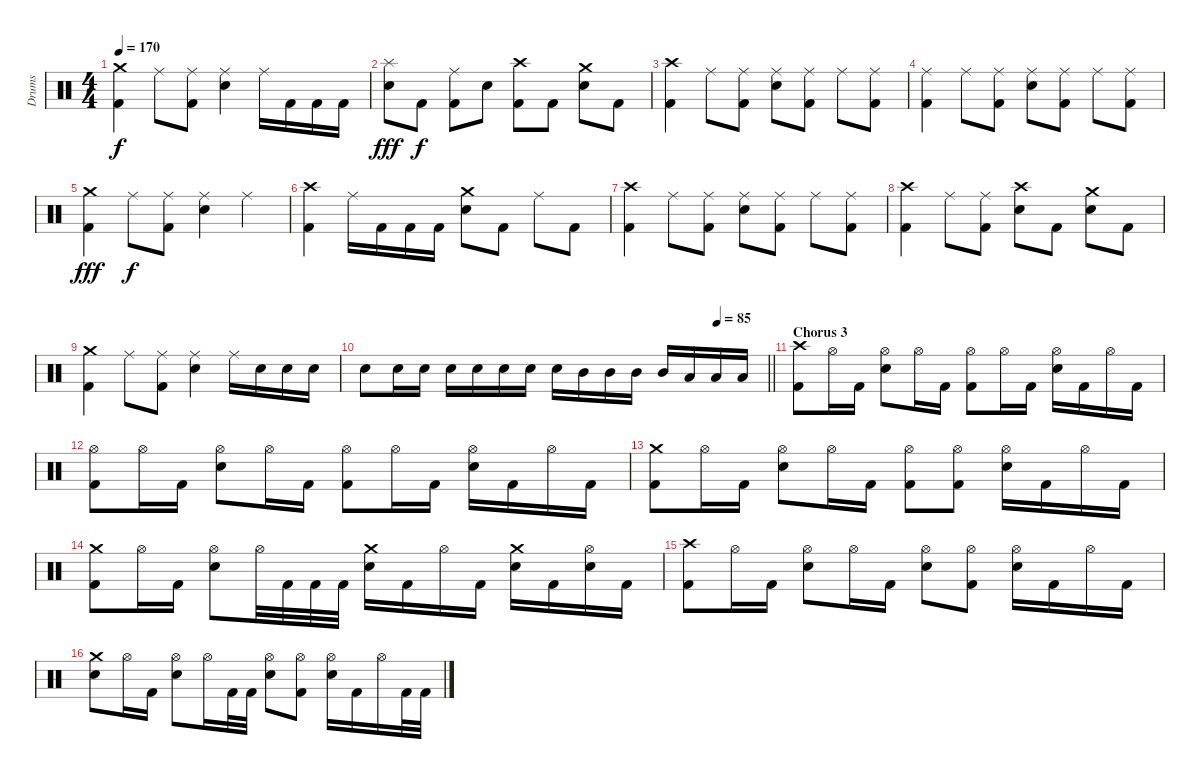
\track ("Drums" "Drums") {instrument percussion}
\staff {score}
\articulation defaults
\ts (4 4)
\tempo 170
\clef neutral
\ks c
("Crash medium (hit)" "Kick (hit) 2").4{dy f} "Ride (middle)".8 ("Ride (middle)" "Kick (hit) 2").8 ("Ride (middle)" "Electric Snare (hit)").4 "Ride (middle)".16 "Kick (hit) 2".16 "Kick (hit) 2".16 "Kick (hit) 2".16 |
("Splash (hit)" "Electric Snare (hit)").8{dy fff} "Kick (hit) 2".8{dy f} ("Ride (middle)" "Kick (hit) 2").8 "Electric Snare (hit)".8 ("Crash high (hit)" "Kick (hit) 2").8 "Kick (hit) 2".8 ("Crash medium (hit)" "Electric Snare (hit)").8 "Kick (hit) 2".8 |
("Crash high (hit)" "Kick (hit) 2").4 "Ride (middle)".8 ("Ride (middle)" "Kick (hit) 2").8 ("Ride (middle)" "Electric Snare (hit)").8 ("Ride (middle)" "Kick (hit) 2").8 "Ride (middle)".8 ("Ride (middle)" "Kick (hit) 2").8 |
("Ride (middle)" "Kick (hit) 2").4 "Ride (middle)".8 ("Ride (middle)" "Kick (hit) 2").8 ("Ride (middle)" "Electric Snare (hit)").8 ("Ride (middle)" "Kick (hit) 2").8 "Ride (middle)".8 ("Ride (middle)" "Kick (hit) 2").8 |
("Crash medium (hit)" "Kick (hit) 2").4{dy fff} "Ride (middle)".8{dy f} ("Ride (middle)" "Kick (hit) 2").8 ("Ride (middle)" "Electric Snare (hit)").4 "Ride (middle)".4 |
("Crash high (hit)" "Kick (hit) 2").4 "Ride (middle)".16 "Kick (hit) 2".16 "Kick (hit) 2".16 "Kick (hit) 2".16 ("Crash medium (hit)" "Electric Snare (hit)").8 "Kick (hit) 2".8 "Ride (middle)".8 "Kick (hit) 2".8 |
("Crash high (hit)" "Kick (hit) 2").4 "Ride (middle)".8 ("Ride (middle)" "Kick (hit) 2").8 ("Ride (middle)" "Electric Snare (hit)").8 ("Ride (middle)" "Kick (hit) 2").8 "Ride (middle)".8 ("Ride (middle)" "Kick (hit) 2").8 |
("Crash high (hit)" "Kick (hit) 2").4 "Ride (middle)".8 ("Ride (middle)" "Kick (hit) 2").8 ("Crash high (hit)" "Electric Snare (hit)").8 "Kick (hit) 2".8 ("Crash medium (hit)" "Electric Snare (hit)").8 "Kick (hit) 2".8 |
("Crash medium (hit)" "Kick (hit) 2").4 "Ride (middle)".8 ("Ride (middle)" "Kick (hit) 2").8 ("Ride (middle)" "Electric Snare (hit)").4 "Ride (middle)".16 "Electric Snare (hit)".16 "Electric Snare (hit)".16 "Electric Snare (hit)".16 |
\tempo (85 0.875)
\barLineRight lightlight "Electric Snare (hit)".8 "Electric Snare (hit)".16 "Electric Snare (hit)".16 "Electric Snare (hit)".16 "Electric Snare (hit)".16 "Electric Snare (hit)".16 "Electric Snare (hit)".16 "Electric Snare (hit)".16 "Mid Tom (hit)".16 "Mid Tom (hit)".16 "Mid Tom (hit)".16 "Mid Tom (hit)".16 "Low Tom (hit)".16 "Low Tom (hit)".16 "Low Tom (hit)".16
|
\section ("" "Chorus 3")
("Crash high (hit)" "Kick (hit) 2").8 "Hi-Hat (open)".16 "Kick (hit) 2".16 ("Hi-Hat (open)" "Electric Snare (hit)").8 "Hi-Hat (open)".16 "Kick (hit) 2".16 ("Hi-Hat (open)" "Kick (hit) 2").8 "Hi-Hat (open)".16 "Kick (hit) 2".16 ("Hi-Hat (open)" "Electric Snare (hit)").16 "Kick (hit) 2".16 "Hi-Hat (open)".16 "Kick (hit) 2".16 |
("Hi-Hat (open)" "Kick (hit) 2").8 "Hi-Hat (open)".16 "Kick (hit) 2".16 ("Hi-Hat (open)" "Electric Snare (hit)").8 "Hi-Hat (open)".16 "Kick (hit) 2".16 ("Hi-Hat (open)" "Kick (hit) 2").8 "Hi-Hat (open)".16 "Kick (hit) 2".16 ("Hi-Hat (open)" "Electric Snare (hit)").16 "Kick (hit) 2".16 "Hi-Hat (open)".16 "Kick (hit) 2".16 |
("Crash medium (hit)" "Kick (hit) 2").8 "Hi-Hat (open)".16 "Kick (hit) 2".16 ("Hi-Hat (open)" "Electric Snare (hit)").8 "Hi-Hat (open)".16 "Kick (hit) 2".16 ("Hi-Hat (open)" "Kick (hit) 2").8 ("Hi-Hat (open)" "Kick (hit) 2").8 ("Hi-Hat (open)" "Electric Snare (hit)").16 "Kick (hit) 2".16 "Hi-Hat (open)".16 "Kick (hit) 2".16 |
("Crash medium (hit)" "Kick (hit) 2").8 "Hi-Hat (open)".16 "Kick (hit) 2".16 ("Hi-Hat (open)" "Electric Snare (hit)").8 "Hi-Hat (open)".32 "Kick (hit) 2".32 "Kick (hit) 2".32 "Kick (hit) 2".32 ("Crash medium (hit)" "Electric Snare (hit)").16 "Kick (hit) 2".16 "Hi-Hat (open)".16 "Kick (hit) 2".16 ("Crash medium (hit)" "Electric Snare (hit)").16 "Kick (hit) 2".16 ("Hi-Hat (open)" "Electric Snare (hit)").16 "Kick (hit) 2".16 |
("Crash high (hit)" "Kick (hit) 2").8 "Hi-Hat (open)".16 "Kick (hit) 2".16 ("Hi-Hat (open)" "Electric Snare (hit)").8 "Hi-Hat (open)".16 "Kick (hit) 2".16 ("Hi-Hat (open)" "Electric Snare (hit)").8 ("Hi-Hat (open)" "Kick (hit) 2").8 ("Hi-Hat (open)" "Electric Snare (hit)").16 "Kick (hit) 2".16 "Hi-Hat (open)".16 "Kick (hit) 2".16 |
("Crash medium (hit)" "Electric Snare (hit)").8 "Hi-Hat (open)".16 "Kick (hit) 2".16 ("Hi-Hat (open)" "Electric Snare (hit)").8 "Hi-Hat (open)".16 "Kick (hit) 2".32 "Kick (hit) 2".32 ("Hi-Hat (open)" "Electric Snare (hit)").8 ("Hi-Hat (open)" "Kick (hit) 2").8 ("Hi-Hat (open)" "Electric Snare (hit)").16 "Kick (hit) 2".16 "Hi-Hat (open)".16 "Kick (hit) 2".32 "Kick (hit) 2".32
